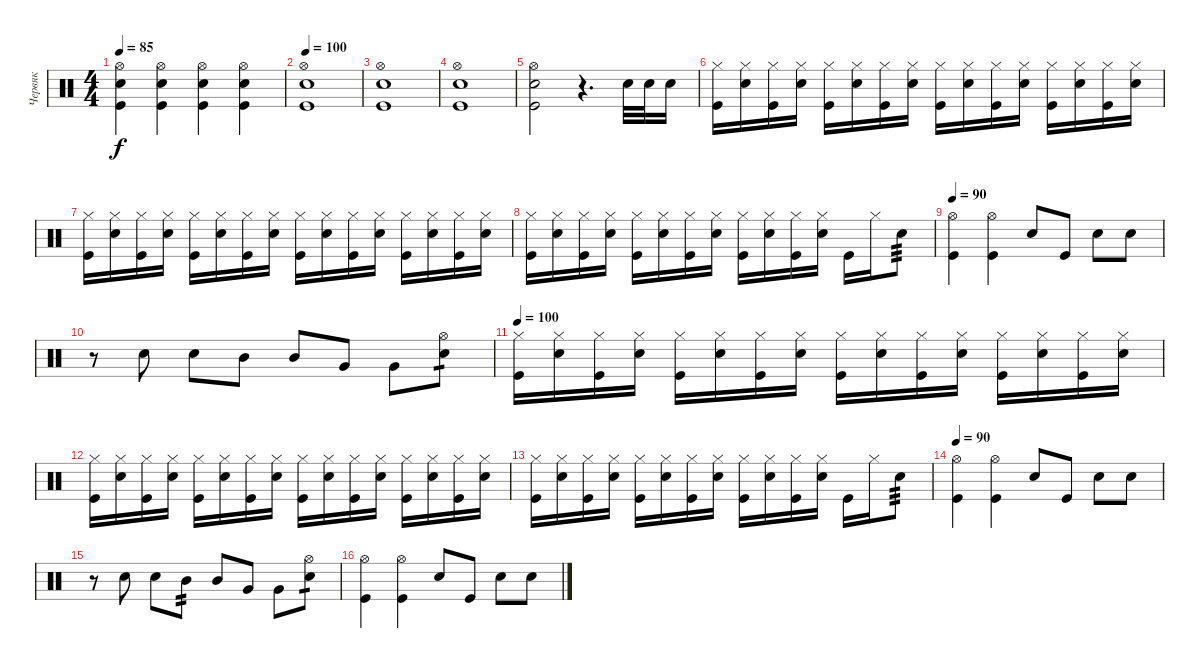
\track ("Червяк" "Червяк") {instrument percussion}
\staff {score}
\articulation defaults
\ts (4 4)
\tempo 85
\clef neutral
\ks c
("Hi-Hat (open)" "Electric Snare (hit)" "Kick (hit)").4{dy f} ("Hi-Hat (open)" "Electric Snare (hit)" "Kick (hit)").4 ("Hi-Hat (open)" "Electric Snare (hit)" "Kick (hit)").4 ("Hi-Hat (open)" "Electric Snare (hit)" "Kick (hit)").4 |
\tempo 100
("Hi-Hat (open)" "Electric Snare (hit)" "Kick (hit)").1 |
("Hi-Hat (open)" "Electric Snare (hit)" "Kick (hit)").1 |
("Hi-Hat (open)" "Electric Snare (hit)" "Kick (hit)").1 |
("Hi-Hat (open)" "Electric Snare (hit)" "Kick (hit)").2 r.4{d} "Snare (hit) 2".32 "Snare (hit) 2".32 "Snare (hit) 2".16 |
("Hi-Hat (closed)" "Kick (hit)").16 ("Hi-Hat (closed)" "Electric Snare (hit)").16 ("Hi-Hat (closed)" "Kick (hit)").16 ("Hi-Hat (closed)" "Electric Snare (hit)").16 ("Hi-Hat (closed)" "Kick (hit)").16 ("Hi-Hat (closed)" "Electric Snare (hit)").16 ("Hi-Hat (closed)" "Kick (hit)").16 ("Hi-Hat (closed)" "Electric Snare (hit)").16 ("Hi-Hat (closed)" "Kick (hit)").16 ("Hi-Hat (closed)" "Electric Snare (hit)").16 ("Hi-Hat (closed)" "Kick (hit)").16 ("Hi-Hat (closed)" "Electric Snare (hit)").16 ("Hi-Hat (closed)" "Kick (hit)").16 ("Hi-Hat (closed)" "Electric Snare (hit)").16 ("Hi-Hat (closed)" "Kick (hit)").16 ("Hi-Hat (closed)" "Electric Snare (hit)").16 |
("Hi-Hat (closed)" "Kick (hit)").16 ("Hi-Hat (closed)" "Electric Snare (hit)").16 ("Hi-Hat (closed)" "Kick (hit)").16 ("Hi-Hat (closed)" "Electric Snare (hit)").16 ("Hi-Hat (closed)" "Kick (hit)").16 ("Hi-Hat (closed)" "Electric Snare (hit)").16 ("Hi-Hat (closed)" "Kick (hit)").16 ("Hi-Hat (closed)" "Electric Snare (hit)").16 ("Hi-Hat (closed)" "Kick (hit)").16 ("Hi-Hat (closed)" "Electric Snare (hit)").16 ("Hi-Hat (closed)" "Kick (hit)").16 ("Hi-Hat (closed)" "Electric Snare (hit)").16 ("Hi-Hat (closed)" "Kick (hit)").16 ("Hi-Hat (closed)" "Electric Snare (hit)").16 ("Hi-Hat (closed)" "Kick (hit)").16 ("Hi-Hat (closed)" "Electric Snare (hit)").16 |
("Hi-Hat (closed)" "Kick (hit)").16 ("Hi-Hat (closed)" "Electric Snare (hit)").16 ("Hi-Hat (closed)" "Kick (hit)").16 ("Hi-Hat (closed)" "Electric Snare (hit)").16 ("Hi-Hat (closed)" "Kick (hit)").16 ("Hi-Hat (closed)" "Electric Snare (hit)").16 ("Hi-Hat (closed)" "Kick (hit)").16 ("Hi-Hat (closed)" "Electric Snare (hit)").16 ("Hi-Hat (closed)" "Kick (hit)").16 ("Hi-Hat (closed)" "Electric Snare (hit)").16 ("Hi-Hat (closed)" "Kick (hit)").16 ("Hi-Hat (closed)" "Electric Snare (hit)").16 "Kick (hit)".16 "Hi-Hat (closed)".16 "Electric Snare (hit)".8{tp 3} |
\tempo 90
("Hi-Hat (open)" "Kick (hit)").4 ("Hi-Hat (open)" "Kick (hit)").4 "Electric Snare (hit)".8 "Kick (hit)".8 "Electric Snare (hit)".8 "Electric Snare (hit)".8 |
r.8 "Electric Snare (hit)".8 "Electric Snare (hit)".8 "Mid Tom (hit)".8 "Mid Tom (hit)".8 "Very Low Tom (hit)".8 "Very Low Tom (hit)".8 ("Hi-Hat (open)" "Electric Snare (hit)").8{tp 1} |
\tempo 100
("Hi-Hat (closed)" "Kick (hit)").16 ("Hi-Hat (closed)" "Electric Snare (hit)").16 ("Hi-Hat (closed)" "Kick (hit)").16 ("Hi-Hat (closed)" "Electric Snare (hit)").16 ("Hi-Hat (closed)" "Kick (hit)").16 ("Hi-Hat (closed)" "Electric Snare (hit)").16 ("Hi-Hat (closed)" "Kick (hit)").16 ("Hi-Hat (closed)" "Electric Snare (hit)").16 ("Hi-Hat (closed)" "Kick (hit)").16 ("Hi-Hat (closed)" "Electric Snare (hit)").16 ("Hi-Hat (closed)" "Kick (hit)").16 ("Hi-Hat (closed)" "Electric Snare (hit)").16 ("Hi-Hat (closed)" "Kick (hit)").16 ("Hi-Hat (closed)" "Electric Snare (hit)").16 ("Hi-Hat (closed)" "Kick (hit)").16 ("Hi-Hat (closed)" "Electric Snare (hit)").16 |
("Hi-Hat (closed)" "Kick (hit)").16 ("Hi-Hat (closed)" "Electric Snare (hit)").16 ("Hi-Hat (closed)" "Kick (hit)").16 ("Hi-Hat (closed)" "Electric Snare (hit)").16 ("Hi-Hat (closed)" "Kick (hit)").16 ("Hi-Hat (closed)" "Electric Snare (hit)").16 ("Hi-Hat (closed)" "Kick (hit)").16 ("Hi-Hat (closed)" "Electric Snare (hit)").16 ("Hi-Hat (closed)" "Kick (hit)").16 ("Hi-Hat (closed)" "Electric Snare (hit)").16 ("Hi-Hat (closed)" "Kick (hit)").16 ("Hi-Hat (closed)" "Electric Snare (hit)").16 ("Hi-Hat (closed)" "Kick (hit)").16 ("Hi-Hat (closed)" "Electric Snare (hit)").16 ("Hi-Hat (closed)" "Kick (hit)").16 ("Hi-Hat (closed)" "Electric Snare (hit)").16 |
("Hi-Hat (closed)" "Kick (hit)").16 ("Hi-Hat (closed)" "Electric Snare (hit)").16 ("Hi-Hat (closed)" "Kick (hit)").16 ("Hi-Hat (closed)" "Electric Snare (hit)").16 ("Hi-Hat (closed)" "Kick (hit)").16 ("Hi-Hat (closed)" "Electric Snare (hit)").16 ("Hi-Hat (closed)" "Kick (hit)").16 ("Hi-Hat (closed)" "Electric Snare (hit)").16 ("Hi-Hat (closed)" "Kick (hit)").16 ("Hi-Hat (closed)" "Electric Snare (hit)").16 ("Hi-Hat (closed)" "Kick (hit)").16 ("Hi-Hat (closed)" "Electric Snare (hit)").16 "Kick (hit)".16 "Hi-Hat (closed)".16 "Electric Snare (hit)".8{tp 3} |
\tempo 90
("Hi-Hat (open)" "Kick (hit)").4 ("Hi-Hat (open)" "Kick (hit)").4 "Electric Snare (hit)".8 "Kick (hit)".8 "Electric Snare (hit)".8 "Electric Snare (hit)".8 |
r.8 "Electric Snare (hit)".8 "Electric Snare (hit)".8 "Mid Tom (hit)".8{tp 2} "Mid Tom (hit)".8 "Very Low Tom (hit)".8 "Very Low Tom (hit)".8 ("Hi-Hat (open)" "Electric Snare (hit)").8{tp 1} |
("Hi-Hat (open)" "Kick (hit)").4 ("Hi-Hat (open)" "Kick (hit)").4 "Electric Snare (hit)".8 "Kick (hit)".8 "Electric Snare (hit)".8 "Electric Snare (hit)".8
